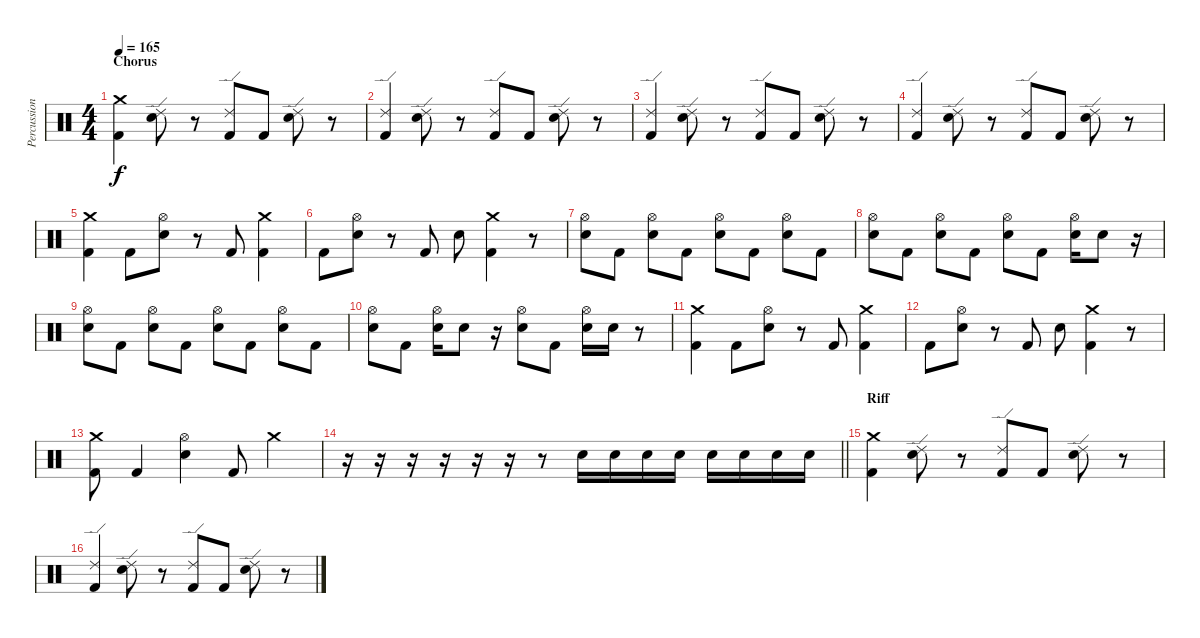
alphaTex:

\track ("Percussion" "Percussion") {instrument percussion}
\staff {score}
\articulation defaults
\ts (4 4)
\section ("" "Chorus")
\tempo 165
\clef neutral
\ks c
("Crash medium (hit)" "Kick (hit) 2").4{dy f} ("Ride (edge) 2" "Electric Snare (hit)").8 r.8 ("Ride (edge) 2" "Kick (hit) 2").8 "Kick (hit) 2".8 ("Ride (edge) 2" "Electric Snare (hit)").8 r.8 |
("Ride (edge) 2" "Kick (hit) 2").4 ("Ride (edge) 2" "Electric Snare (hit)").8 r.8 ("Ride (edge) 2" "Kick (hit) 2").8 "Kick (hit) 2".8 ("Ride (edge) 2" "Electric Snare (hit)").8 r.8 |
("Ride (edge) 2" "Kick (hit) 2").4 ("Ride (edge) 2" "Electric Snare (hit)").8 r.8 ("Ride (edge) 2" "Kick (hit) 2").8 "Kick (hit) 2".8 ("Ride (edge) 2" "Electric Snare (hit)").8 r.8 |
("Ride (edge) 2" "Kick (hit) 2").4 ("Ride (edge) 2" "Electric Snare (hit)").8 r.8 ("Ride (edge) 2" "Kick (hit) 2").8 "Kick (hit) 2".8 ("Ride (edge) 2" "Electric Snare (hit)").8 r.8 |
("Crash medium (hit)" "Kick (hit) 2").4 "Kick (hit) 2".8 ("Hi-Hat (open)" "Electric Snare (hit)").8 r.8 "Kick (hit) 2".8 ("Crash medium (hit)" "Kick (hit) 2").4 |
"Kick (hit) 2".8 ("Hi-Hat (open)" "Electric Snare (hit)").8 r.8 "Kick (hit) 2".8 "Electric Snare (hit)".8 ("Crash medium (hit)" "Kick (hit) 2").4 r.8 |
("Hi-Hat (open)" "Electric Snare (hit)").8 "Kick (hit) 2".8 ("Hi-Hat (open)" "Electric Snare (hit)").8 "Kick (hit) 2".8 ("Hi-Hat (open)" "Electric Snare (hit)").8 "Kick (hit) 2".8 ("Hi-Hat (open)" "Electric Snare (hit)").8 "Kick (hit) 2".8 |
("Hi-Hat (open)" "Electric Snare (hit)").8 "Kick (hit) 2".8 ("Hi-Hat (open)" "Electric Snare (hit)").8 "Kick (hit) 2".8 ("Hi-Hat (open)" "Electric Snare (hit)").8 "Kick (hit) 2".8 ("Hi-Hat (open)" "Electric Snare (hit)").16 "Electric Snare (hit)".8 r.16 |
("Hi-Hat (open)" "Electric Snare (hit)").8 "Kick (hit) 2".8 ("Hi-Hat (open)" "Electric Snare (hit)").8 "Kick (hit) 2".8 ("Hi-Hat (open)" "Electric Snare (hit)").8 "Kick (hit) 2".8 ("Hi-Hat (open)" "Electric Snare (hit)").8 "Kick (hit) 2".8 |
("Hi-Hat (open)" "Electric Snare (hit)").8 "Kick (hit) 2".8 ("Hi-Hat (open)" "Electric Snare (hit)").16 "Electric Snare (hit)".8 r.16 ("Hi-Hat (open)" "Electric Snare (hit)").8 "Kick (hit) 2".8 ("Hi-Hat (open)" "Electric Snare (hit)").16 "Electric Snare (hit)".16 r.8 |
("Crash medium (hit)" "Kick (hit) 2").4 "Kick (hit) 2".8 ("Hi-Hat (open)" "Electric Snare (hit)").8 r.8 "Kick (hit) 2".8 ("Crash medium (hit)" "Kick (hit) 2").4 |
"Kick (hit) 2".8 ("Hi-Hat (open)" "Electric Snare (hit)").8 r.8 "Kick (hit) 2".8 "Electric Snare (hit)".8 ("Crash medium (hit)" "Kick (hit) 2").4 r.8 |
("Crash medium (hit)" "Kick (hit) 2").8 "Kick (hit) 2".4 ("Hi-Hat (open)" "Electric Snare (hit)").4 "Kick (hit) 2".8 "Crash medium (hit)".4 |
\barLineRight lightlight
r.16 r.16 r.16 r.16 r.16 r.16 r.8 "Electric Snare (hit)".16 "Electric Snare (hit)".16 "Electric Snare (hit)".16 "Electric Snare (hit)".16 "Electric Snare (hit)".16 "Electric Snare (hit)".16 "Electric Snare (hit)".16 "Electric Snare (hit)".16 |
\section ("" "Riff")
("Crash medium (hit)" "Kick (hit) 2").4 ("Ride (edge) 2" "Electric Snare (hit)").8 r.8 ("Ride (edge) 2" "Kick (hit) 2").8 "Kick (hit) 2".8 ("Ride (edge) 2" "Electric Snare (hit)").8 r.8 |
("Ride (edge) 2" "Kick (hit) 2").4 ("Ride (edge) 2" "Electric Snare (hit)").8 r.8 ("Ride (edge) 2" "Kick (hit) 2").8 "Kick (hit) 2".8 ("Ride (edge) 2" "Electric Snare (hit)").8 r.8
